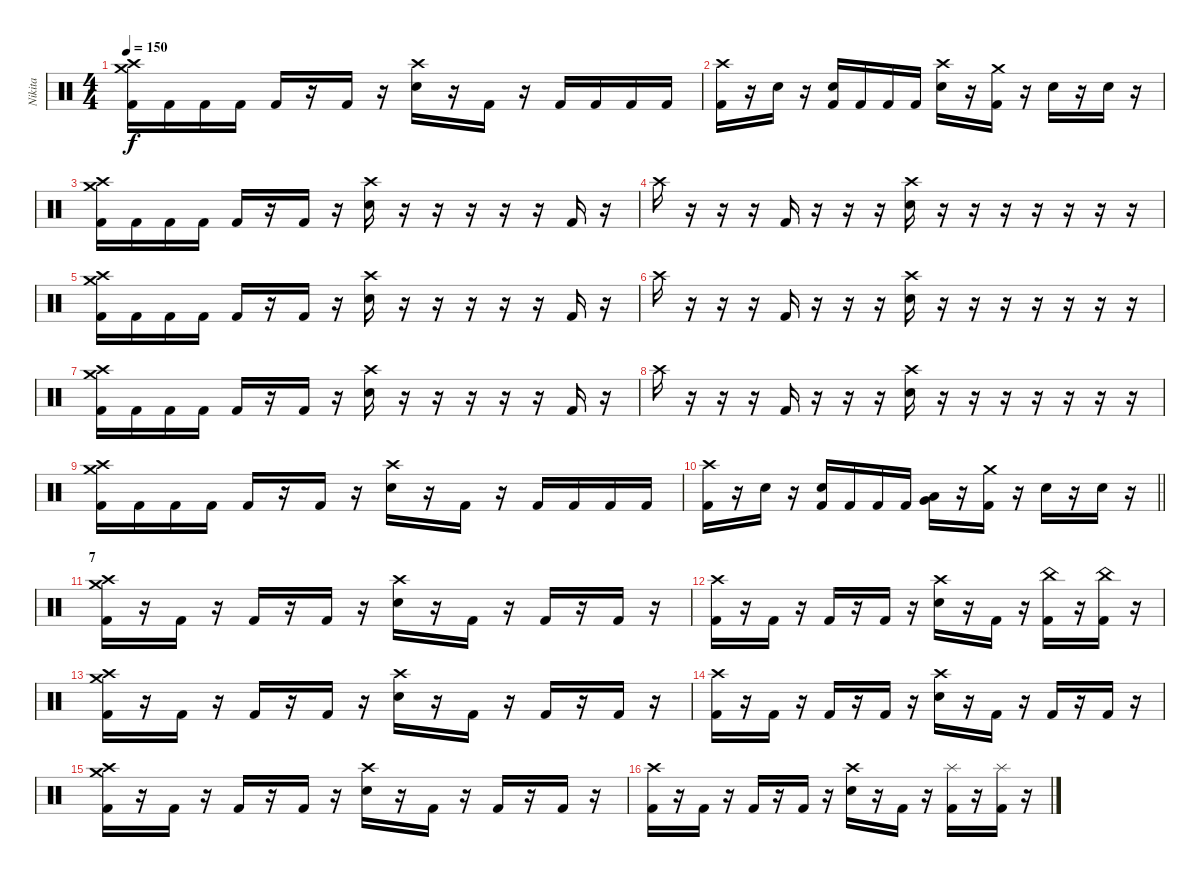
\track ("Nikita" "Nikita") {instrument percussion}
\staff {score}
\articulation defaults
\ts (4 4)
\tempo 150
\clef neutral
\ks c
("Crash high (hit)" "Crash medium (hit)" "Kick (hit) 2").16{dy f} "Kick (hit) 2".16 "Kick (hit) 2".16 "Kick (hit) 2".16 "Kick (hit) 2".16 r.16 "Kick (hit) 2".16 r.16 ("Crash high (hit)" "Electric Snare (hit)").16 r.16 "Kick (hit) 2".16 r.16 "Kick (hit) 2".16 "Kick (hit) 2".16 "Kick (hit) 2".16 "Kick (hit) 2".16 |
("Crash high (hit)" "Kick (hit) 2").16 r.16 "Electric Snare (hit)".16 r.16 ("Electric Snare (hit)" "Kick (hit) 2").16 "Kick (hit) 2".16 "Kick (hit) 2".16 "Kick (hit) 2".16 ("Crash high (hit)" "Electric Snare (hit)").16 r.16 ("Crash medium (hit)" "Kick (hit) 2").16 r.16 "Electric Snare (hit)".16 r.16 "Electric Snare (hit)".16 r.16 |
("Crash high (hit)" "Crash medium (hit)" "Kick (hit) 2").16 "Kick (hit) 2".16 "Kick (hit) 2".16 "Kick (hit) 2".16 "Kick (hit) 2".16 r.16 "Kick (hit) 2".16 r.16 ("Crash high (hit)" "Electric Snare (hit)").16 r.16 r.16 r.16 r.16 r.16 "Kick (hit) 2".16 r.16 |
"Crash high (hit)".16 r.16 r.16 r.16 "Kick (hit) 2".16 r.16 r.16 r.16 ("Crash high (hit)" "Electric Snare (hit)").16 r.16 r.16 r.16 r.16 r.16 r.16 r.16 |
("Crash high (hit)" "Crash medium (hit)" "Kick (hit) 2").16 "Kick (hit) 2".16 "Kick (hit) 2".16 "Kick (hit) 2".16 "Kick (hit) 2".16 r.16 "Kick (hit) 2".16 r.16 ("Crash high (hit)" "Electric Snare (hit)").16 r.16 r.16 r.16 r.16 r.16 "Kick (hit) 2".16 r.16 |
"Crash high (hit)".16 r.16 r.16 r.16 "Kick (hit) 2".16 r.16 r.16 r.16 ("Crash high (hit)" "Electric Snare (hit)").16 r.16 r.16 r.16 r.16 r.16 r.16 r.16 |
("Crash high (hit)" "Crash medium (hit)" "Kick (hit) 2").16 "Kick (hit) 2".16 "Kick (hit) 2".16 "Kick (hit) 2".16 "Kick (hit) 2".16 r.16 "Kick (hit) 2".16 r.16 ("Crash high (hit)" "Electric Snare (hit)").16 r.16 r.16 r.16 r.16 r.16 "Kick (hit) 2".16 r.16 |
"Crash high (hit)".16 r.16 r.16 r.16 "Kick (hit) 2".16 r.16 r.16 r.16 ("Crash high (hit)" "Electric Snare (hit)").16 r.16 r.16 r.16 r.16 r.16 r.16 r.16 |
("Crash high (hit)" "Crash medium (hit)" "Kick (hit) 2").16 "Kick (hit) 2".16 "Kick (hit) 2".16 "Kick (hit) 2".16 "Kick (hit) 2".16 r.16 "Kick (hit) 2".16 r.16 ("Crash high (hit)" "Electric Snare (hit)").16 r.16 "Kick (hit) 2".16 r.16 "Kick (hit) 2".16 "Kick (hit) 2".16 "Kick (hit) 2".16 "Kick (hit) 2".16 |
\barLineRight lightlight
("Crash high (hit)" "Kick (hit) 2").16 r.16 "Electric Snare (hit)".16 r.16 ("Electric Snare (hit)" "Kick (hit) 2").16 "Kick (hit) 2".16 "Kick (hit) 2".16 "Kick (hit) 2".16 ("Very Low Tom (hit)" "Low Tom (hit)").16 r.16 ("Crash medium (hit)" "Kick (hit) 2").16 r.16 "Electric Snare (hit)".16 r.16 "Electric Snare (hit)".16 r.16 |
\section ("" "7")
("Crash high (hit)" "Crash medium (hit)" "Kick (hit) 2").16 r.16 "Kick (hit) 2".16 r.16 "Kick (hit) 2".16 r.16 "Kick (hit) 2".16 r.16 ("Crash high (hit)" "Electric Snare (hit)").16 r.16 "Kick (hit) 2".16 r.16 "Kick (hit) 2".16 r.16 "Kick (hit) 2".16 r.16 |
("Crash high (hit)" "Kick (hit) 2").16 r.16 "Kick (hit) 2".16 r.16 "Kick (hit) 2".16 r.16 "Kick (hit) 2".16 r.16 ("Crash high (hit)" "Electric Snare (hit)").16 r.16 "Kick (hit) 2".16 r.16 ("China (hit)" "Kick (hit) 2").16 r.16 ("China (hit)" "Kick (hit) 2").16 r.16 |
("Crash high (hit)" "Crash medium (hit)" "Kick (hit) 2").16 r.16 "Kick (hit) 2".16 r.16 "Kick (hit) 2".16 r.16 "Kick (hit) 2".16 r.16 ("Crash high (hit)" "Electric Snare (hit)").16 r.16 "Kick (hit) 2".16 r.16 "Kick (hit) 2".16 r.16 "Kick (hit) 2".16 r.16 |
("Crash high (hit)" "Kick (hit) 2").16 r.16 "Kick (hit) 2".16 r.16 "Kick (hit) 2".16 r.16 "Kick (hit) 2".16 r.16 ("Crash high (hit)" "Electric Snare (hit)").16 r.16 "Kick (hit) 2".16 r.16 "Kick (hit) 2".16 r.16 "Kick (hit) 2".16 r.16 |
("Crash high (hit)" "Crash medium (hit)" "Kick (hit) 2").16 r.16 "Kick (hit) 2".16 r.16 "Kick (hit) 2".16 r.16 "Kick (hit) 2".16 r.16 ("Crash high (hit)" "Electric Snare (hit)").16 r.16 "Kick (hit) 2".16 r.16 "Kick (hit) 2".16 r.16 "Kick (hit) 2".16 r.16 |
("Crash high (hit)" "Kick (hit) 2").16 r.16 "Kick (hit) 2".16 r.16 "Kick (hit) 2".16 r.16 "Kick (hit) 2".16 r.16 ("Crash high (hit)" "Electric Snare (hit)").16 r.16 "Kick (hit) 2".16 r.16 ("Splash (hit)" "Kick (hit) 2").16 r.16 ("Splash (hit)" "Kick (hit) 2").16 r.16
